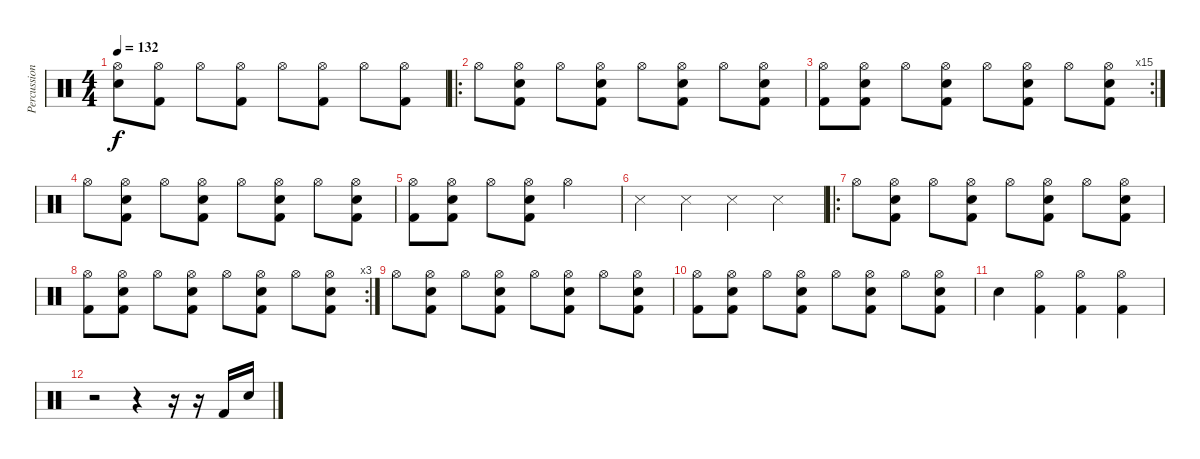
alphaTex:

\track ("Percussions" "Percussion") {instrument percussion}
\staff {score}
\articulation defaults
\ts (4 4)
\tempo 132
\clef neutral
\ks c
("Hi-Hat (open)"{t} "Snare (hit)"{t}).8{dy f} ("Hi-Hat (open)" "Kick (hit) 2").8 "Hi-Hat (open)".8 ("Hi-Hat (open)" "Kick (hit) 2").8 "Hi-Hat (open)".8 ("Hi-Hat (open)" "Kick (hit) 2").8 "Hi-Hat (open)".8 ("Hi-Hat (open)" "Kick (hit) 2").8 |
\ro "Hi-Hat (open)".8
("Hi-Hat (open)" "Electric Snare (hit)" "Kick (hit) 2").8 "Hi-Hat (open)".8 ("Hi-Hat (open)" "Electric Snare (hit)" "Kick (hit) 2").8 "Hi-Hat (open)".8 ("Hi-Hat (open)" "Electric Snare (hit)" "Kick (hit) 2").8 "Hi-Hat (open)".8 ("Hi-Hat (open)" "Electric Snare (hit)" "Kick (hit) 2").8 |
\rc 15
("Hi-Hat (open)" "Kick (hit) 2").8 ("Hi-Hat (open)" "Electric Snare (hit)" "Kick (hit) 2").8 "Hi-Hat (open)".8 ("Hi-Hat (open)" "Electric Snare (hit)" "Kick (hit) 2").8 "Hi-Hat (open)".8 ("Hi-Hat (open)" "Electric Snare (hit)" "Kick (hit) 2").8 "Hi-Hat (open)".8 ("Hi-Hat (open)" "Electric Snare (hit)" "Kick (hit) 2").8 |
"Hi-Hat (open)".8 ("Hi-Hat (open)" "Electric Snare (hit)" "Kick (hit) 2").8 "Hi-Hat (open)".8 ("Hi-Hat (open)" "Electric Snare (hit)" "Kick (hit) 2").8 "Hi-Hat (open)".8 ("Hi-Hat (open)" "Electric Snare (hit)" "Kick (hit) 2").8 "Hi-Hat (open)".8 ("Hi-Hat (open)" "Electric Snare (hit)" "Kick (hit) 2").8 |
("Hi-Hat (open)" "Kick (hit) 2").8 ("Hi-Hat (open)" "Electric Snare (hit)" "Kick (hit) 2").8 "Hi-Hat (open)".8 ("Hi-Hat (open)" "Electric Snare (hit)" "Kick (hit) 2").8 "Hi-Hat (open)".2 |
"Snare (side stick) 3".4{volume 16} "Snare (side stick) 3".4{volume 10} "Snare (side stick) 3".4{volume 16} "Snare (side stick) 3".4{volume 10} |
\ro "Hi-Hat (open)".8{volume 13}
("Hi-Hat (open)" "Electric Snare (hit)" "Kick (hit) 2").8 "Hi-Hat (open)".8 ("Hi-Hat (open)" "Electric Snare (hit)" "Kick (hit) 2").8 "Hi-Hat (open)".8 ("Hi-Hat (open)" "Electric Snare (hit)" "Kick (hit) 2").8 "Hi-Hat (open)".8 ("Hi-Hat (open)" "Electric Snare (hit)" "Kick (hit) 2").8 |
\rc 3
("Hi-Hat (open)" "Kick (hit) 2").8 ("Hi-Hat (open)" "Electric Snare (hit)" "Kick (hit) 2").8 "Hi-Hat (open)".8 ("Hi-Hat (open)" "Electric Snare (hit)" "Kick (hit) 2").8 "Hi-Hat (open)".8 ("Hi-Hat (open)" "Electric Snare (hit)" "Kick (hit) 2").8 "Hi-Hat (open)".8 ("Hi-Hat (open)" "Electric Snare (hit)" "Kick (hit) 2").8 |
"Hi-Hat (open)".8 ("Hi-Hat (open)" "Electric Snare (hit)" "Kick (hit) 2").8 "Hi-Hat (open)".8 ("Hi-Hat (open)" "Electric Snare (hit)" "Kick (hit) 2").8 "Hi-Hat (open)".8 ("Hi-Hat (open)" "Electric Snare (hit)" "Kick (hit) 2").8 "Hi-Hat (open)".8 ("Hi-Hat (open)" "Electric Snare (hit)" "Kick (hit) 2").8 |
("Hi-Hat (open)" "Kick (hit) 2").8 ("Hi-Hat (open)" "Electric Snare (hit)" "Kick (hit) 2").8 "Hi-Hat (open)".8 ("Hi-Hat (open)" "Electric Snare (hit)" "Kick (hit) 2").8 "Hi-Hat (open)".8 ("Hi-Hat (open)" "Electric Snare (hit)" "Kick (hit) 2").8 "Hi-Hat (open)".8 ("Hi-Hat (open)" "Electric Snare (hit)" "Kick (hit) 2").8 |
"Electric Snare (hit)".4 ("Hi-Hat (open)" "Kick (hit) 2").4 ("Hi-Hat (open)" "Kick (hit) 2").4 ("Hi-Hat (open)" "Kick (hit) 2").4 |
r.2 r.4 r.16 r.16 "Kick (hit) 2".16 "Electric Snare (hit)".16
